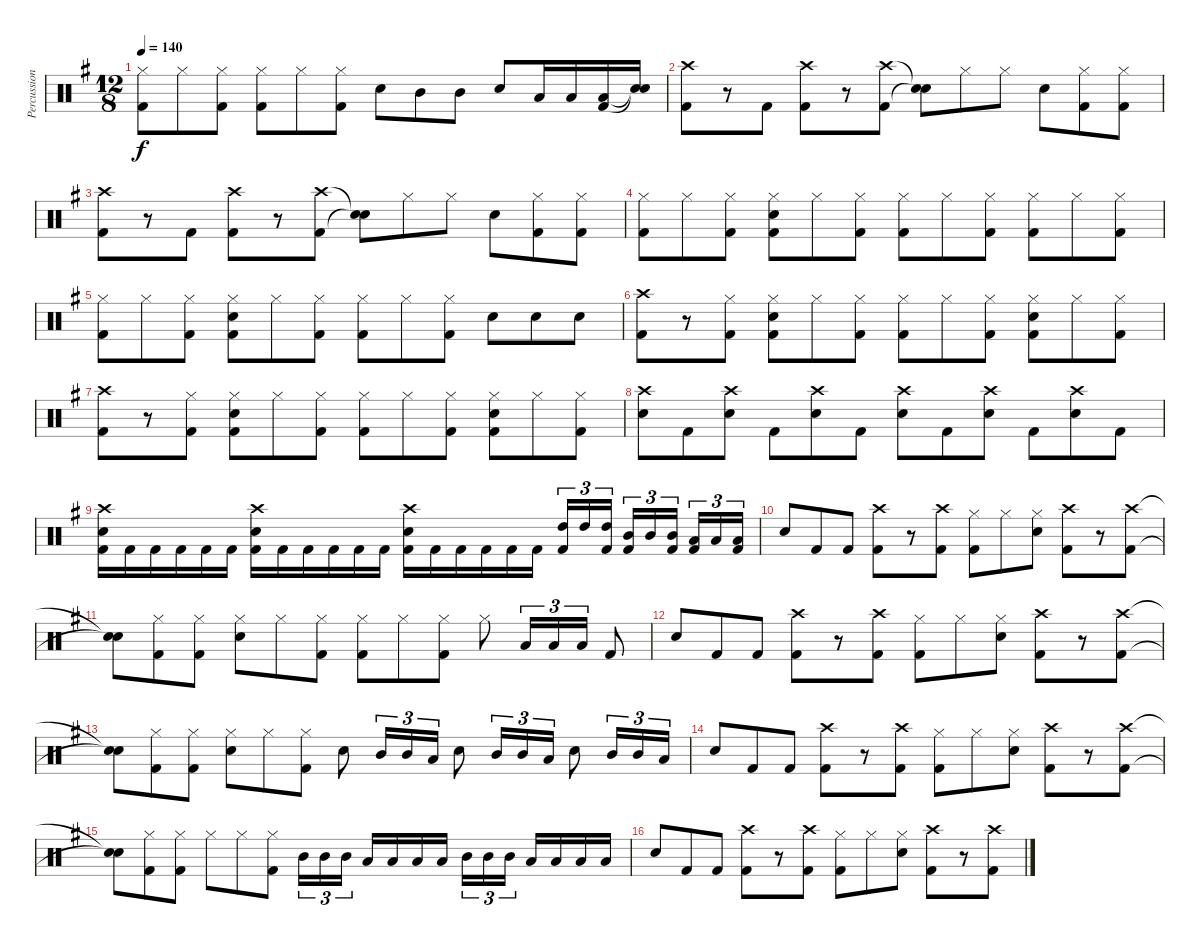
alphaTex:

\track ("Percussion" "Percussion") {instrument percussion}
\staff {score}
\articulation defaults
\ts (12 8)
\tempo 140
\clef neutral
\ks g
("Hi-Hat (closed)" "Kick (hit) 2").8{dy f} "Hi-Hat (closed)".8 ("Hi-Hat (closed)" "Kick (hit) 2").8 ("Hi-Hat (closed)" "Kick (hit) 2").8 "Hi-Hat (closed)".8 ("Hi-Hat (closed)" "Kick (hit) 2").8 "Snare (hit) 2".8 "Mid Tom (hit)".8 "Mid Tom (hit)".8 "Snare (hit) 2".8 "Low Tom (hit)".16 "Low Tom (hit)".16 ("Low Tom (hit)" "Kick (hit) 2").16 ("Snare (hit)"{t} "Snare (hit)"{t}).16 |
("Crash high (hit)" "Kick (hit) 2").8 r.8 "Kick (hit) 2".8 ("Crash high (hit)" "Kick (hit) 2").8 r.8 ("Crash high (hit)" "Kick (hit) 2").8 ("Snare (hit)"{t} "Snare (hit)"{t}).8 "Hi-Hat (closed)".8 "Hi-Hat (closed)".8 "Snare (hit) 2".8 ("Hi-Hat (closed)" "Kick (hit) 2").8 ("Hi-Hat (closed)" "Kick (hit) 2").8 |
("Crash high (hit)" "Kick (hit) 2").8 r.8 "Kick (hit) 2".8 ("Crash high (hit)" "Kick (hit) 2").8 r.8 ("Crash high (hit)" "Kick (hit) 2").8 ("Snare (hit)"{t} "Snare (hit)"{t}).8 "Hi-Hat (closed)".8 "Hi-Hat (closed)".8 "Snare (hit) 2".8 ("Hi-Hat (closed)" "Kick (hit) 2").8 ("Hi-Hat (closed)" "Kick (hit) 2").8 |
("Hi-Hat (closed)" "Kick (hit) 2").8 "Hi-Hat (closed)".8 ("Hi-Hat (closed)" "Kick (hit) 2").8 ("Hi-Hat (closed)" "Snare (hit) 2" "Kick (hit) 2").8 "Hi-Hat (closed)".8 ("Hi-Hat (closed)" "Kick (hit) 2").8 ("Hi-Hat (closed)" "Kick (hit) 2").8 "Hi-Hat (closed)".8 ("Hi-Hat (closed)" "Kick (hit) 2").8 ("Hi-Hat (closed)" "Kick (hit) 2").8 "Hi-Hat (closed)".8 ("Hi-Hat (closed)" "Kick (hit) 2").8 |
("Hi-Hat (closed)" "Kick (hit) 2").8 "Hi-Hat (closed)".8 ("Hi-Hat (closed)" "Kick (hit) 2").8 ("Hi-Hat (closed)" "Snare (hit) 2" "Kick (hit) 2").8 "Hi-Hat (closed)".8 ("Hi-Hat (closed)" "Kick (hit) 2").8 ("Hi-Hat (closed)" "Kick (hit) 2").8 "Hi-Hat (closed)".8 ("Hi-Hat (closed)" "Kick (hit) 2").8 "Snare (hit) 2".8 "Snare (hit) 2".8 "Snare (hit) 2".8 |
("Crash high (hit)" "Kick (hit) 2").8 r.8 ("Hi-Hat (closed)" "Kick (hit) 2").8 ("Hi-Hat (closed)" "Snare (hit) 2" "Kick (hit) 2").8 "Hi-Hat (closed)".8 ("Hi-Hat (closed)" "Kick (hit) 2").8 ("Hi-Hat (closed)" "Kick (hit) 2").8 "Hi-Hat (closed)".8 ("Hi-Hat (closed)" "Kick (hit) 2").8 ("Hi-Hat (closed)" "Snare (hit) 2" "Kick (hit) 2").8 "Hi-Hat (closed)".8 ("Hi-Hat (closed)" "Kick (hit) 2").8 |
("Crash high (hit)" "Kick (hit) 2").8 r.8 ("Hi-Hat (closed)" "Kick (hit) 2").8 ("Hi-Hat (closed)" "Snare (hit) 2" "Kick (hit) 2").8 "Hi-Hat (closed)".8 ("Hi-Hat (closed)" "Kick (hit) 2").8 ("Hi-Hat (closed)" "Kick (hit) 2").8 "Hi-Hat (closed)".8 ("Hi-Hat (closed)" "Kick (hit) 2").8 ("Hi-Hat (closed)" "Snare (hit) 2" "Kick (hit) 2").8 "Hi-Hat (closed)".8 ("Hi-Hat (closed)" "Kick (hit) 2").8 |
("Crash high (hit)" "Snare (hit) 2").8 "Kick (hit) 2".8 ("Crash high (hit)" "Snare (hit) 2").8 "Kick (hit) 2".8 ("Crash high (hit)" "Snare (hit) 2").8 "Kick (hit) 2".8 ("Crash high (hit)" "Snare (hit) 2").8 "Kick (hit) 2".8 ("Crash high (hit)" "Snare (hit) 2").8 "Kick (hit) 2".8 ("Crash high (hit)" "Snare (hit) 2").8 "Kick (hit) 2".8 |
("Crash high (hit)" "Snare (hit) 2" "Kick (hit) 2").16 "Kick (hit) 2".16 "Kick (hit) 2".16 "Kick (hit) 2".16 "Kick (hit) 2".16 "Kick (hit) 2".16 ("Crash high (hit)" "Snare (hit) 2" "Kick (hit) 2").16 "Kick (hit) 2".16 "Kick (hit) 2".16 "Kick (hit) 2".16 "Kick (hit) 2".16 "Kick (hit) 2".16 ("Crash high (hit)" "Snare (hit) 2" "Kick (hit) 2").16 "Kick (hit) 2".16 "Kick (hit) 2".16 "Kick (hit) 2".16 "Kick (hit) 2".16 "Kick (hit) 2".16 ("High Tom (hit)" "Kick (hit) 2").16{tu (3 2)} "High Tom (hit)".16{tu (3 2)} ("High Tom (hit)" "Kick (hit) 2").16{tu (3 2) beam splitsecondary} ("Mid Tom (hit)" "Kick (hit) 2").16{tu (3 2)} "Mid Tom (hit)".16{tu (3 2)} ("Mid Tom (hit)" "Kick (hit) 2").16{tu (3 2) beam splitsecondary} ("Low Tom (hit)" "Kick (hit) 2").16{tu (3 2)} "Low Tom (hit)".16{tu (3 2)} ("Low Tom (hit)" "Kick (hit) 2").16{tu (3 2)} |
"Snare (hit) 2".8 "Kick (hit) 2".8 "Kick (hit) 2".8 ("Crash high (hit)" "Kick (hit) 2").8 r.8 ("Crash high (hit)" "Kick (hit) 2").8 ("Hi-Hat (closed)" "Kick (hit) 2").8 "Hi-Hat (closed)".8 ("Hi-Hat (closed)" "Snare (hit) 2").8 ("Crash high (hit)" "Kick (hit) 2").8 r.8 ("Crash high (hit)" "Kick (hit) 2").8 |
("Snare (hit)"{t} "Snare (hit)"{t}).8 ("Hi-Hat (closed)" "Kick (hit) 2").8 ("Hi-Hat (closed)" "Kick (hit) 2").8 ("Hi-Hat (closed)" "Snare (hit) 2").8 "Hi-Hat (closed)".8 ("Hi-Hat (closed)" "Kick (hit) 2").8 ("Hi-Hat (closed)" "Kick (hit) 2").8 "Hi-Hat (closed)".8 ("Hi-Hat (closed)" "Kick (hit) 2").8 "Hi-Hat (closed)".8 "Low Tom (hit)".16{tu (3 2)} "Low Tom (hit)".16{tu (3 2)} "Low Tom (hit)".16{tu (3 2)} "Kick (hit) 2".8 |
"Snare (hit) 2".8 "Kick (hit) 2".8 "Kick (hit) 2".8 ("Crash high (hit)" "Kick (hit) 2").8 r.8 ("Crash high (hit)" "Kick (hit) 2").8 ("Hi-Hat (closed)" "Kick (hit) 2").8 "Hi-Hat (closed)".8 ("Hi-Hat (closed)" "Snare (hit) 2").8 ("Crash high (hit)" "Kick (hit) 2").8 r.8 ("Crash high (hit)" "Kick (hit) 2").8 |
("Snare (hit)"{t} "Snare (hit)"{t}).8 ("Hi-Hat (closed)" "Kick (hit) 2").8 ("Hi-Hat (closed)" "Kick (hit) 2").8 ("Hi-Hat (closed)" "Snare (hit) 2").8 "Hi-Hat (closed)".8 ("Hi-Hat (closed)" "Kick (hit) 2").8 "Snare (hit) 2".8 "Mid Tom (hit)".16{tu (3 2)} "Mid Tom (hit)".16{tu (3 2)} "Low Tom (hit)".16{tu (3 2)} "Snare (hit) 2".8 "Mid Tom (hit)".16{tu (3 2)} "Mid Tom (hit)".16{tu (3 2)} "Low Tom (hit)".16{tu (3 2)} "Snare (hit) 2".8 "Mid Tom (hit)".16{tu (3 2)} "Mid Tom (hit)".16{tu (3 2)} "Low Tom (hit)".16{tu (3 2)} |
"Snare (hit) 2".8 "Kick (hit) 2".8 "Kick (hit) 2".8 ("Crash high (hit)" "Kick (hit) 2").8 r.8 ("Crash high (hit)" "Kick (hit) 2").8 ("Hi-Hat (closed)" "Kick (hit) 2").8 "Hi-Hat (closed)".8 ("Hi-Hat (closed)" "Snare (hit) 2").8 ("Crash high (hit)" "Kick (hit) 2").8 r.8 ("Crash high (hit)" "Kick (hit) 2").8 |
("Snare (hit)"{t} "Snare (hit)"{t}).8 ("Hi-Hat (closed)" "Kick (hit) 2").8 ("Hi-Hat (closed)" "Kick (hit) 2").8 "Hi-Hat (closed)".8 "Hi-Hat (closed)".8 ("Hi-Hat (closed)" "Kick (hit) 2").8 "Mid Tom (hit)".16{tu (3 2)} "Mid Tom (hit)".16{tu (3 2)} "Mid Tom (hit)".16{tu (3 2) beam splitsecondary} "Low Tom (hit)".16 "Low Tom (hit)".16 "Low Tom (hit)".16 "Low Tom (hit)".16 "Mid Tom (hit)".16{tu (3 2)} "Mid Tom (hit)".16{tu (3 2)} "Mid Tom (hit)".16{tu (3 2) beam splitsecondary} "Low Tom (hit)".16 "Low Tom (hit)".16 "Low Tom (hit)".16 "Low Tom (hit)".16 |
"Snare (hit) 2".8 "Kick (hit) 2".8 "Kick (hit) 2".8 ("Crash high (hit)" "Kick (hit) 2").8 r.8 ("Crash high (hit)" "Kick (hit) 2").8 ("Hi-Hat (closed)" "Kick (hit) 2").8 "Hi-Hat (closed)".8 ("Hi-Hat (closed)" "Snare (hit) 2").8 ("Crash high (hit)" "Kick (hit) 2").8 r.8 ("Crash high (hit)" "Kick (hit) 2").8
